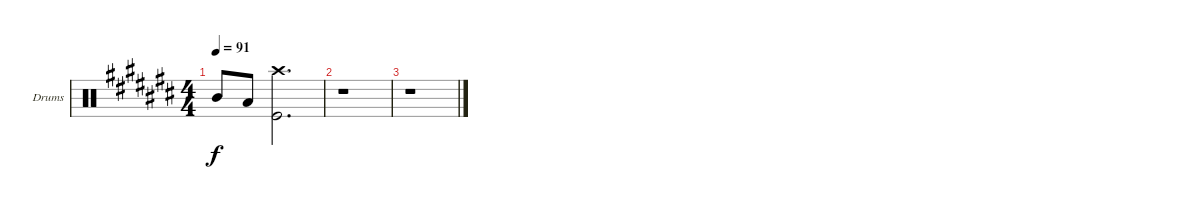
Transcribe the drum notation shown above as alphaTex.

\bracketExtendMode groupsimilarinstruments
\firstSystemTrackNameOrientation horizontal
\otherSystemsTrackNameOrientation horizontal
\track ("Fabrizio Moretti" "Drums") {instrument percussion}
\staff {score}
\articulation defaults
\ts (4 4)
\tempo 91
\clef neutral
\ks c# "Mid Tom (hit)".8{dy f} "Low Tom (hit)".8
("Crash high (hit)" "Kick (hit)").2{d} |
r.1 |
r.1
